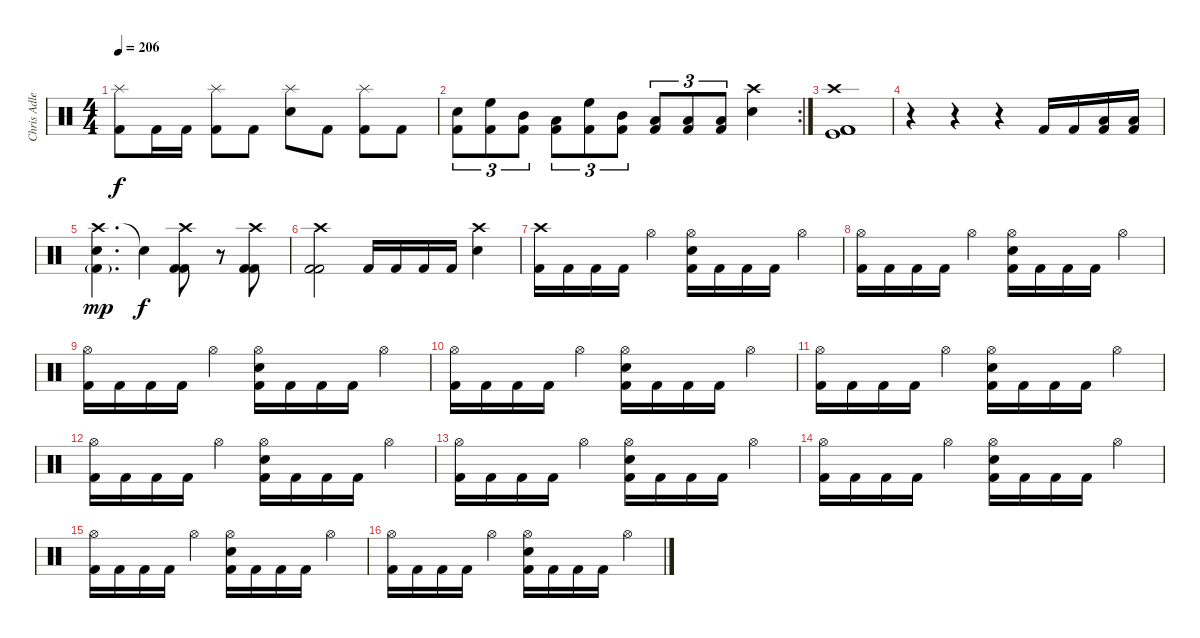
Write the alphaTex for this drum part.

\track ("Chris Adler" "Chris Adle") {instrument percussion}
\staff {score}
\articulation defaults
\ts (4 4)
\tempo 206
\clef neutral
\ks c
("Splash (hit)" "Kick (hit) 2").8{dy f} "Kick (hit) 2".16 "Kick (hit) 2".16 ("Splash (hit)" "Kick (hit) 2").8 "Kick (hit) 2".8 ("Splash (hit)" "Electric Snare (hit)").8 "Kick (hit) 2".8 ("Splash (hit)" "Kick (hit) 2").8 "Kick (hit) 2".8 |
\rc 2
("Kick (hit) 2" "Snare (hit) 2").8{tu (3 2)} ("Kick (hit) 2" "High Floor Tom (hit)").8{tu (3 2)} ("Kick (hit) 2" "Mid Tom (hit)").8{tu (3 2)} ("Kick (hit) 2" "Low Tom (hit)").8{tu (3 2)} ("Kick (hit) 2" "High Floor Tom (hit)").8{tu (3 2)} ("Kick (hit) 2" "Mid Tom (hit)").8{tu (3 2)} ("Kick (hit) 2" "Low Tom (hit)").8{tu (3 2)} ("Kick (hit) 2" "Low Floor Tom (hit)").8{tu (3 2)} ("Kick (hit) 2" "Low Tom (hit)").8{tu (3 2)} ("Crash high (hit)" "Snare (hit) 2").4 |
("Kick (hit)" "Kick (hit) 2" "Crash high (hit)" "Kick (hit) 2").1 |
r.4 r.4 r.4 "Kick (hit) 2".16 "Kick (hit) 2".16 ("Low Tom (hit)" "Kick (hit) 2").16 ("Low Floor Tom (hit)" "Kick (hit) 2").16 |
("Crash high (hit)" "Electric Snare (hit)" "Kick (hit) 2"{g}).4{d dy mp} "Snare (hit)"{t}.4{dy f} ("Kick (hit) 2" "Crash high (hit)" "Kick (hit) 2").8 r.8 ("Kick (hit) 2" "Crash high (hit)" "Kick (hit) 2").8 |
("Kick (hit) 2" "Crash high (hit)" "Kick (hit) 2").2 "Kick (hit) 2".16 "Kick (hit) 2".16 "Kick (hit) 2".16 "Kick (hit) 2".16 ("Crash high (hit)" "Electric Snare (hit)").4 |
("Crash high (hit)" "Kick (hit) 2").16 "Kick (hit) 2".16 "Kick (hit) 2".16 "Kick (hit) 2".16 "Hi-Hat (open)".4 ("Hi-Hat (open)" "Electric Snare (hit)" "Kick (hit) 2").16 "Kick (hit) 2".16 "Kick (hit) 2".16 "Kick (hit) 2".16 "Hi-Hat (open)".4 |
("Hi-Hat (open)" "Kick (hit) 2").16 "Kick (hit) 2".16 "Kick (hit) 2".16 "Kick (hit) 2".16 "Hi-Hat (open)".4 ("Hi-Hat (open)" "Electric Snare (hit)" "Kick (hit) 2").16 "Kick (hit) 2".16 "Kick (hit) 2".16 "Kick (hit) 2".16 "Hi-Hat (open)".4 |
("Hi-Hat (open)" "Kick (hit) 2").16 "Kick (hit) 2".16 "Kick (hit) 2".16 "Kick (hit) 2".16 "Hi-Hat (open)".4 ("Hi-Hat (open)" "Electric Snare (hit)" "Kick (hit) 2").16 "Kick (hit) 2".16 "Kick (hit) 2".16 "Kick (hit) 2".16 "Hi-Hat (open)".4 |
("Hi-Hat (open)" "Kick (hit) 2").16 "Kick (hit) 2".16 "Kick (hit) 2".16 "Kick (hit) 2".16 "Hi-Hat (open)".4 ("Hi-Hat (open)" "Electric Snare (hit)" "Kick (hit) 2").16 "Kick (hit) 2".16 "Kick (hit) 2".16 "Kick (hit) 2".16 "Hi-Hat (open)".4 |
("Hi-Hat (open)" "Kick (hit) 2").16 "Kick (hit) 2".16 "Kick (hit) 2".16 "Kick (hit) 2".16 "Hi-Hat (open)".4 ("Hi-Hat (open)" "Electric Snare (hit)" "Kick (hit) 2").16 "Kick (hit) 2".16 "Kick (hit) 2".16 "Kick (hit) 2".16 "Hi-Hat (open)".4 |
("Hi-Hat (open)" "Kick (hit) 2").16 "Kick (hit) 2".16 "Kick (hit) 2".16 "Kick (hit) 2".16 "Hi-Hat (open)".4 ("Hi-Hat (open)" "Electric Snare (hit)" "Kick (hit) 2").16 "Kick (hit) 2".16 "Kick (hit) 2".16 "Kick (hit) 2".16 "Hi-Hat (open)".4 |
("Hi-Hat (open)" "Kick (hit) 2").16 "Kick (hit) 2".16 "Kick (hit) 2".16 "Kick (hit) 2".16 "Hi-Hat (open)".4 ("Hi-Hat (open)" "Electric Snare (hit)" "Kick (hit) 2").16 "Kick (hit) 2".16 "Kick (hit) 2".16 "Kick (hit) 2".16 "Hi-Hat (open)".4 |
("Hi-Hat (open)" "Kick (hit) 2").16 "Kick (hit) 2".16 "Kick (hit) 2".16 "Kick (hit) 2".16 "Hi-Hat (open)".4 ("Hi-Hat (open)" "Electric Snare (hit)" "Kick (hit) 2").16 "Kick (hit) 2".16 "Kick (hit) 2".16 "Kick (hit) 2".16 "Hi-Hat (open)".4 |
("Hi-Hat (open)" "Kick (hit) 2").16 "Kick (hit) 2".16 "Kick (hit) 2".16 "Kick (hit) 2".16 "Hi-Hat (open)".4 ("Hi-Hat (open)" "Electric Snare (hit)" "Kick (hit) 2").16 "Kick (hit) 2".16 "Kick (hit) 2".16 "Kick (hit) 2".16 "Hi-Hat (open)".4 |
("Hi-Hat (open)" "Kick (hit) 2").16 "Kick (hit) 2".16 "Kick (hit) 2".16 "Kick (hit) 2".16 "Hi-Hat (open)".4 ("Hi-Hat (open)" "Electric Snare (hit)" "Kick (hit) 2").16 "Kick (hit) 2".16 "Kick (hit) 2".16 "Kick (hit) 2".16 "Hi-Hat (open)".4
